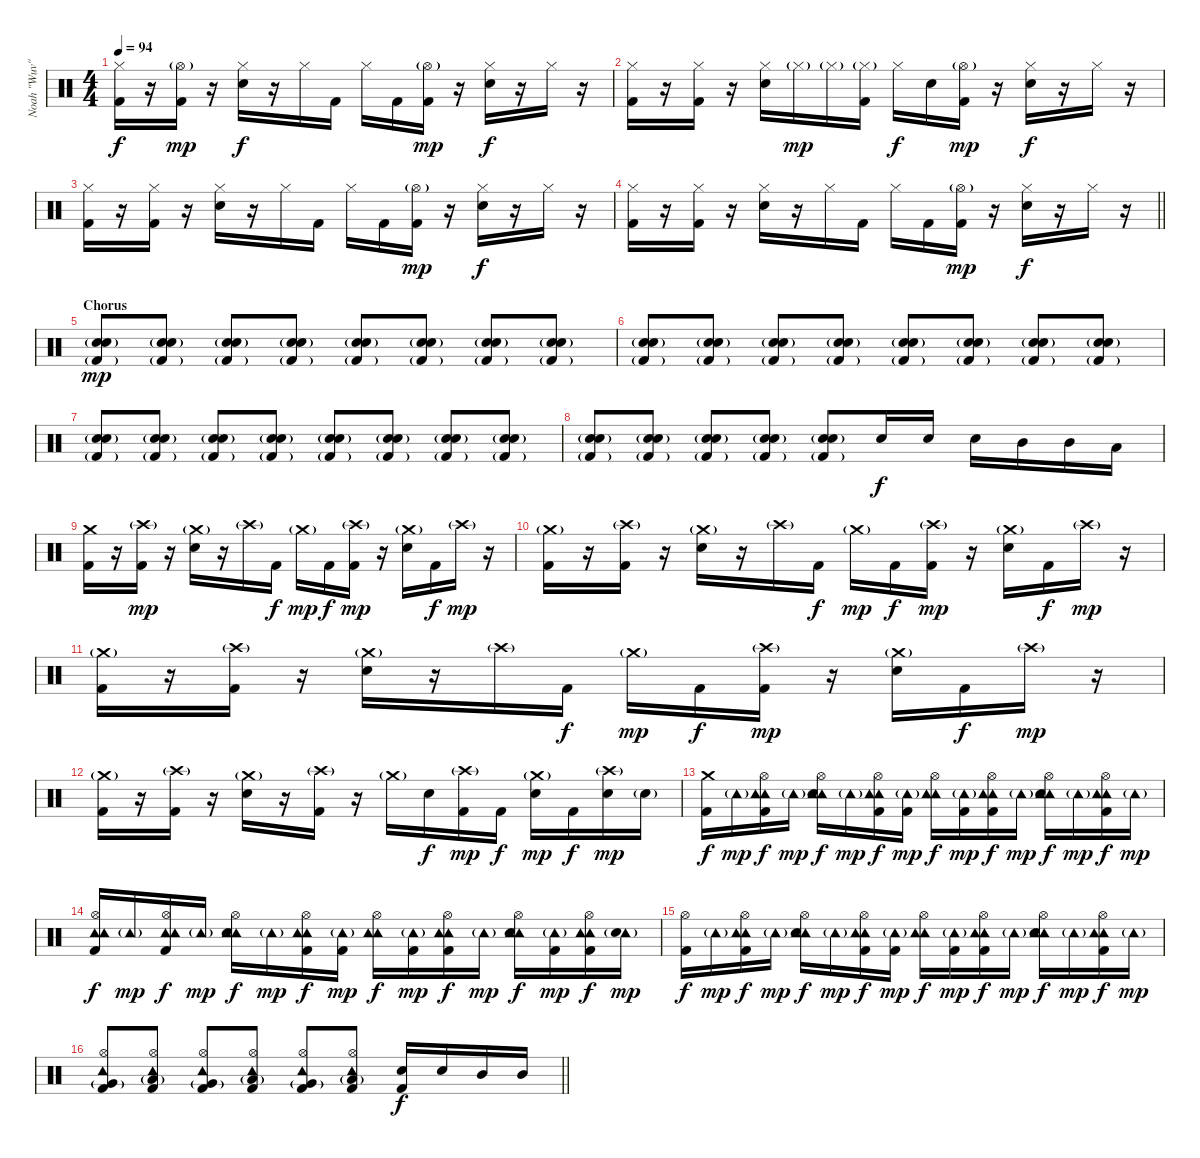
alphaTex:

\track ("Noah \"Wuv\" Bernardo" "Noah \"Wuv\"") {instrument percussion}
\staff {score}
\articulation defaults
\ts (4 4)
\tempo 94
\clef neutral
\ks c
("Hi-Hat (closed)" "Kick (hit) 2").16{dy f} r.16 ("Hi-Hat (open)"{g} "Kick (hit) 2").16{dy mp} r.16 ("Hi-Hat (closed)" "Electric Snare (hit)").16{dy f} r.16 "Hi-Hat (closed)".16 "Kick (hit) 2".16 "Hi-Hat (closed)".16 "Kick (hit) 2".16 ("Hi-Hat (open)"{g} "Kick (hit) 2").16{dy mp} r.16 ("Hi-Hat (closed)" "Electric Snare (hit)").16{dy f} r.16 "Hi-Hat (closed)".16 r.16 |
("Hi-Hat (closed)" "Kick (hit) 2").16 r.16 ("Hi-Hat (closed)" "Kick (hit) 2").16 r.16 ("Hi-Hat (closed)" "Electric Snare (hit)").16 "Hi-Hat (closed)"{g}.16{dy mp} "Hi-Hat (closed)"{g}.16 ("Hi-Hat (closed)"{g} "Kick (hit) 2").16 "Hi-Hat (closed)".16{dy f} "Electric Snare (hit)".16 ("Hi-Hat (open)"{g} "Kick (hit) 2").16{dy mp} r.16 ("Hi-Hat (closed)" "Electric Snare (hit)").16{dy f} r.16 "Hi-Hat (closed)".16 r.16 |
("Hi-Hat (closed)" "Kick (hit) 2").16 r.16 ("Hi-Hat (closed)" "Kick (hit) 2").16 r.16 ("Hi-Hat (closed)" "Electric Snare (hit)").16 r.16 "Hi-Hat (closed)".16 "Kick (hit) 2".16 "Hi-Hat (closed)".16 "Kick (hit) 2".16 ("Hi-Hat (open)"{g} "Kick (hit) 2").16{dy mp} r.16 ("Hi-Hat (closed)" "Electric Snare (hit)").16{dy f} r.16 "Hi-Hat (closed)".16 r.16 |
\barLineRight lightlight
("Hi-Hat (closed)" "Kick (hit) 2").16 r.16 ("Hi-Hat (closed)" "Kick (hit) 2").16 r.16 ("Hi-Hat (closed)" "Electric Snare (hit)").16 r.16 "Hi-Hat (closed)".16 "Kick (hit) 2".16 "Hi-Hat (closed)".16 "Kick (hit) 2".16 ("Hi-Hat (open)"{g} "Kick (hit) 2").16{dy mp} r.16 ("Hi-Hat (closed)" "Electric Snare (hit)").16{dy f} r.16 "Hi-Hat (closed)".16 r.16 |
\section ("" "Chorus")
("Electric Snare (hit)"{g} "Electric Snare (hit)" "Kick (hit) 2"{g}).8{dy mp} ("Electric Snare (hit)"{g} "Electric Snare (hit)" "Kick (hit) 2"{g}).8 ("Electric Snare (hit)"{g} "Electric Snare (hit)" "Kick (hit) 2"{g}).8 ("Electric Snare (hit)"{g} "Electric Snare (hit)" "Kick (hit) 2"{g}).8 ("Electric Snare (hit)"{g} "Electric Snare (hit)" "Kick (hit) 2"{g}).8 ("Electric Snare (hit)"{g} "Electric Snare (hit)" "Kick (hit) 2"{g}).8 ("Electric Snare (hit)"{g} "Electric Snare (hit)" "Kick (hit) 2"{g}).8 ("Electric Snare (hit)"{g} "Electric Snare (hit)" "Kick (hit) 2"{g}).8 |
("Electric Snare (hit)"{g} "Electric Snare (hit)" "Kick (hit) 2"{g}).8 ("Electric Snare (hit)"{g} "Electric Snare (hit)" "Kick (hit) 2"{g}).8 ("Electric Snare (hit)"{g} "Electric Snare (hit)" "Kick (hit) 2"{g}).8 ("Electric Snare (hit)"{g} "Electric Snare (hit)" "Kick (hit) 2"{g}).8 ("Electric Snare (hit)"{g} "Electric Snare (hit)" "Kick (hit) 2"{g}).8 ("Electric Snare (hit)"{g} "Electric Snare (hit)" "Kick (hit) 2"{g}).8 ("Electric Snare (hit)"{g} "Electric Snare (hit)" "Kick (hit) 2"{g}).8 ("Electric Snare (hit)"{g} "Electric Snare (hit)" "Kick (hit) 2"{g}).8 |
("Electric Snare (hit)"{g} "Electric Snare (hit)" "Kick (hit) 2"{g}).8 ("Electric Snare (hit)"{g} "Electric Snare (hit)" "Kick (hit) 2"{g}).8 ("Electric Snare (hit)"{g} "Electric Snare (hit)" "Kick (hit) 2"{g}).8 ("Electric Snare (hit)"{g} "Electric Snare (hit)" "Kick (hit) 2"{g}).8 ("Electric Snare (hit)"{g} "Electric Snare (hit)" "Kick (hit) 2"{g}).8 ("Electric Snare (hit)"{g} "Electric Snare (hit)" "Kick (hit) 2"{g}).8 ("Electric Snare (hit)"{g} "Electric Snare (hit)" "Kick (hit) 2"{g}).8 ("Electric Snare (hit)"{g} "Electric Snare (hit)" "Kick (hit) 2"{g}).8 |
("Electric Snare (hit)"{g} "Electric Snare (hit)" "Kick (hit) 2"{g}).8 ("Electric Snare (hit)"{g} "Electric Snare (hit)" "Kick (hit) 2"{g}).8 ("Electric Snare (hit)"{g} "Electric Snare (hit)" "Kick (hit) 2"{g}).8 ("Electric Snare (hit)"{g} "Electric Snare (hit)" "Kick (hit) 2"{g}).8 ("Electric Snare (hit)"{g} "Electric Snare (hit)" "Kick (hit) 2"{g}).8 "Electric Snare (hit)".16{dy f} "Electric Snare (hit)".16 "Electric Snare (hit)".16 "Mid Tom (hit)".16 "Mid Tom (hit)".16 "Low Tom (hit)".16 |
("Crash medium (hit)" "Kick (hit) 2").16 r.16 ("Crash high (hit)"{g} "Kick (hit) 2").16{dy mp} r.16 ("Crash medium (hit)"{g} "Electric Snare (hit)").16 r.16 "Crash high (hit)"{g}.16 "Kick (hit) 2".16{dy f} "Crash medium (hit)"{g}.16{dy mp} "Kick (hit) 2".16{dy f} ("Crash high (hit)"{g} "Kick (hit) 2").16{dy mp} r.16 ("Crash medium (hit)"{g} "Electric Snare (hit)").16 "Kick (hit) 2".16{dy f} "Crash high (hit)"{g}.16{dy mp} r.16 |
("Crash medium (hit)"{g} "Kick (hit) 2").16 r.16 ("Crash high (hit)"{g} "Kick (hit) 2").16 r.16 ("Crash medium (hit)"{g} "Electric Snare (hit)").16 r.16 "Crash high (hit)"{g}.16 "Kick (hit) 2".16{dy f} "Crash medium (hit)"{g}.16{dy mp} "Kick (hit) 2".16{dy f} ("Crash high (hit)"{g} "Kick (hit) 2").16{dy mp} r.16 ("Crash medium (hit)"{g} "Electric Snare (hit)").16 "Kick (hit) 2".16{dy f} "Crash high (hit)"{g}.16{dy mp} r.16 |
("Crash medium (hit)"{g} "Kick (hit) 2").16 r.16 ("Crash high (hit)"{g} "Kick (hit) 2").16 r.16 ("Crash medium (hit)"{g} "Electric Snare (hit)").16 r.16 "Crash high (hit)"{g}.16 "Kick (hit) 2".16{dy f} "Crash medium (hit)"{g}.16{dy mp} "Kick (hit) 2".16{dy f} ("Crash high (hit)"{g} "Kick (hit) 2").16{dy mp} r.16 ("Crash medium (hit)"{g} "Electric Snare (hit)").16 "Kick (hit) 2".16{dy f} "Crash high (hit)"{g}.16{dy mp} r.16 |
("Crash medium (hit)"{g} "Kick (hit) 2").16 r.16 ("Crash high (hit)"{g} "Kick (hit) 2").16 r.16 ("Crash medium (hit)"{g} "Electric Snare (hit)").16 r.16 ("Crash high (hit)"{g} "Kick (hit) 2").16 r.16 "Crash medium (hit)"{g}.16 "Electric Snare (hit)".16{dy f} ("Crash high (hit)"{g} "Kick (hit) 2").16{dy mp} "Kick (hit) 2".16{dy f} ("Crash medium (hit)"{g} "Electric Snare (hit)").16{dy mp} "Kick (hit) 2".16{dy f} ("Crash high (hit)"{g} "Electric Snare (hit)").16{dy mp} "Electric Snare (hit)"{g}.16 |
("Crash medium (hit)" "Kick (hit) 2").16{dy f} "Tambourine (hit)"{g}.16{dy mp} ("Hi-Hat (open)" "Tambourine (hit)" "Tambourine (hit)" "Kick (hit) 2").16{dy f} "Tambourine (hit)"{g}.16{dy mp} ("Hi-Hat (open)" "Tambourine (hit)" "Tambourine (hit)" "Electric Snare (hit)").16{dy f} "Tambourine (hit)"{g}.16{dy mp} ("Hi-Hat (open)" "Tambourine (hit)" "Tambourine (hit)" "Kick (hit) 2").16{dy f} ("Tambourine (hit)"{g} "Kick (hit) 2").16{dy mp} ("Hi-Hat (open)" "Tambourine (hit)" "Tambourine (hit)").16{dy f} ("Tambourine (hit)"{g} "Kick (hit) 2").16{dy mp} ("Hi-Hat (open)" "Tambourine (hit)" "Tambourine (hit)" "Kick (hit) 2").16{dy f} "Tambourine (hit)"{g}.16{dy mp} ("Hi-Hat (open)" "Tambourine (hit)" "Tambourine (hit)" "Electric Snare (hit)").16{dy f} "Tambourine (hit)"{g}.16{dy mp} ("Hi-Hat (open)" "Tambourine (hit)" "Tambourine (hit)" "Kick (hit) 2").16{dy f} "Tambourine (hit)"{g}.16{dy mp} |
("Hi-Hat (open)" "Tambourine (hit)" "Tambourine (hit)" "Kick (hit) 2").16{dy f} "Tambourine (hit)"{g}.16{dy mp} ("Hi-Hat (open)" "Tambourine (hit)" "Tambourine (hit)" "Kick (hit) 2").16{dy f} "Tambourine (hit)"{g}.16{dy mp} ("Hi-Hat (open)" "Tambourine (hit)" "Tambourine (hit)" "Electric Snare (hit)").16{dy f} "Tambourine (hit)"{g}.16{dy mp} ("Hi-Hat (open)" "Tambourine (hit)" "Tambourine (hit)" "Kick (hit) 2").16{dy f} ("Tambourine (hit)"{g} "Kick (hit) 2").16{dy mp} ("Hi-Hat (open)" "Tambourine (hit)" "Tambourine (hit)").16{dy f} ("Tambourine (hit)"{g} "Kick (hit) 2").16{dy mp} ("Hi-Hat (open)" "Tambourine (hit)" "Tambourine (hit)" "Kick (hit) 2").16{dy f} "Tambourine (hit)"{g}.16{dy mp} ("Hi-Hat (open)" "Tambourine (hit)" "Tambourine (hit)" "Electric Snare (hit)").16{dy f} ("Tambourine (hit)"{g} "Kick (hit) 2").16{dy mp} ("Hi-Hat (open)" "Tambourine (hit)" "Tambourine (hit)" "Kick (hit) 2").16{dy f} ("Tambourine (hit)"{g} "Electric Snare (hit)").16{dy mp} |
("Hi-Hat (open)" "Kick (hit) 2").16{dy f} "Tambourine (hit)"{g}.16{dy mp} ("Hi-Hat (open)" "Tambourine (hit)" "Tambourine (hit)" "Kick (hit) 2").16{dy f} "Tambourine (hit)"{g}.16{dy mp} ("Hi-Hat (open)" "Tambourine (hit)" "Tambourine (hit)" "Electric Snare (hit)").16{dy f} "Tambourine (hit)"{g}.16{dy mp} ("Hi-Hat (open)" "Tambourine (hit)" "Tambourine (hit)" "Kick (hit) 2").16{dy f} ("Tambourine (hit)"{g} "Kick (hit) 2").16{dy mp} ("Hi-Hat (open)" "Tambourine (hit)" "Tambourine (hit)").16{dy f} ("Tambourine (hit)"{g} "Kick (hit) 2").16{dy mp} ("Hi-Hat (open)" "Tambourine (hit)" "Tambourine (hit)" "Kick (hit) 2").16{dy f} "Tambourine (hit)"{g}.16{dy mp} ("Hi-Hat (open)" "Tambourine (hit)" "Tambourine (hit)" "Electric Snare (hit)").16{dy f} "Tambourine (hit)"{g}.16{dy mp} ("Hi-Hat (open)" "Tambourine (hit)" "Tambourine (hit)" "Kick (hit) 2").16{dy f} "Tambourine (hit)"{g}.16{dy mp} |
\barLineRight lightlight
("Hi-Hat (open)" "Tambourine (hit)" "Very Low Tom (hit)"{g} "Kick (hit) 2").8 ("Hi-Hat (open)" "Tambourine (hit)" "Low Floor Tom (hit)"{g} "Kick (hit) 2").8 ("Hi-Hat (open)" "Tambourine (hit)" "Very Low Tom (hit)"{g} "Kick (hit) 2").8 ("Hi-Hat (open)" "Tambourine (hit)" "Low Floor Tom (hit)"{g} "Kick (hit) 2").8 ("Hi-Hat (open)" "Tambourine (hit)" "Very Low Tom (hit)"{g} "Kick (hit) 2").8 ("Hi-Hat (open)" "Tambourine (hit)" "Low Floor Tom (hit)"{g} "Kick (hit) 2").8 ("Electric Snare (hit)" "Kick (hit) 2").16{dy f} "Electric Snare (hit)".16 "Mid Tom (hit)".16 "Mid Tom (hit)".16
